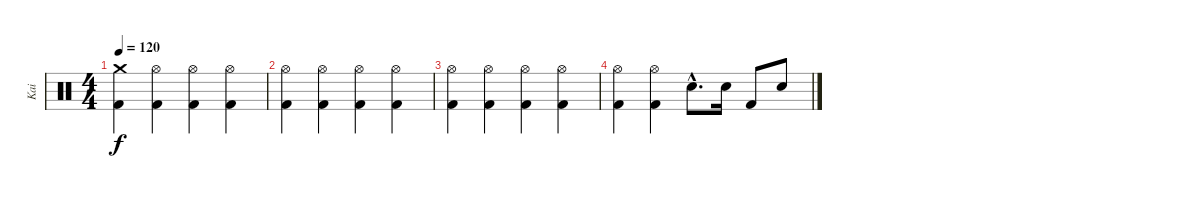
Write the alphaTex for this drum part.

\track ("Kai" "Kai") {instrument percussion}
\staff {score}
\articulation defaults
\ts (4 4)
\tempo 120
\clef neutral
\ks c
("Crash medium (hit)" "Kick (hit) 2").4{dy f} ("Hi-Hat (open)" "Kick (hit) 2").4 ("Hi-Hat (open)" "Kick (hit) 2").4 ("Hi-Hat (open)" "Kick (hit) 2").4 |
("Hi-Hat (open)" "Kick (hit) 2").4 ("Hi-Hat (open)" "Kick (hit) 2").4 ("Hi-Hat (open)" "Kick (hit) 2").4 ("Hi-Hat (open)" "Kick (hit) 2").4 |
("Hi-Hat (open)" "Kick (hit) 2").4 ("Hi-Hat (open)" "Kick (hit) 2").4 ("Hi-Hat (open)" "Kick (hit) 2").4 ("Hi-Hat (open)" "Kick (hit) 2").4 |
("Hi-Hat (open)" "Kick (hit) 2").4 ("Hi-Hat (open)" "Kick (hit) 2").4 "Electric Snare (hit)"{hac}.8{d} "Electric Snare (hit)".16 "Kick (hit) 2".8 "Electric Snare (hit)".8
